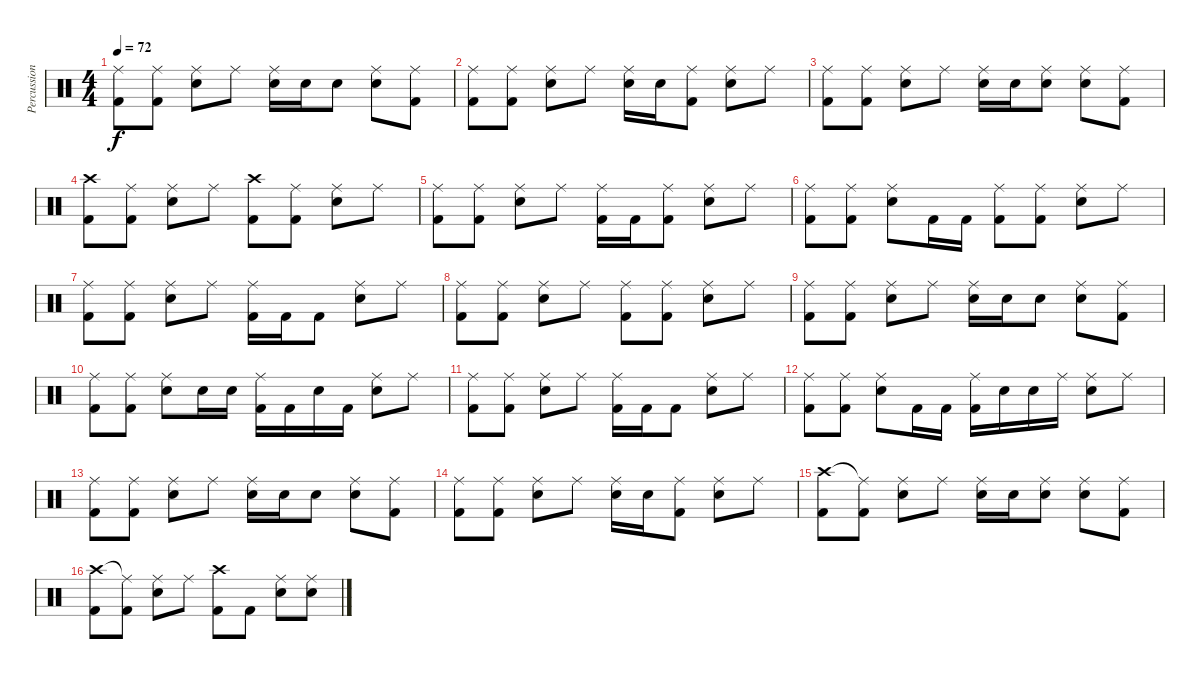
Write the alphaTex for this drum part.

\track ("Percussion" "Percussion") {instrument percussion}
\staff {score}
\articulation defaults
\ts (4 4)
\tempo 72
\clef neutral
\ks c
("Ride (middle)" "Kick (hit) 2").8{dy f} ("Ride (middle)" "Kick (hit) 2").8 ("Ride (middle)" "Electric Snare (hit)").8 "Ride (middle)".8 ("Ride (middle)" "Electric Snare (hit)").16 "Electric Snare (hit)".16 "Electric Snare (hit)".8 ("Ride (middle)" "Electric Snare (hit)").8 ("Ride (middle)" "Kick (hit) 2").8 |
("Ride (middle)" "Kick (hit) 2").8 ("Ride (middle)" "Kick (hit) 2").8 ("Ride (middle)" "Electric Snare (hit)").8 "Ride (middle)".8 ("Ride (middle)" "Electric Snare (hit)").16 "Electric Snare (hit)".16 ("Ride (middle)" "Kick (hit) 2").8 ("Ride (middle)" "Electric Snare (hit)").8 "Ride (middle)".8 |
("Ride (middle)" "Kick (hit) 2").8 ("Ride (middle)" "Kick (hit) 2").8 ("Ride (middle)" "Electric Snare (hit)").8 "Ride (middle)".8 ("Ride (middle)" "Electric Snare (hit)").16 "Electric Snare (hit)".16 ("Ride (middle)" "Electric Snare (hit)").8 ("Ride (middle)" "Electric Snare (hit)").8 ("Ride (middle)" "Kick (hit) 2").8 |
("Crash high (hit)" "Kick (hit) 2").8 ("Ride (middle)" "Kick (hit) 2").8 ("Ride (middle)" "Electric Snare (hit)").8 "Ride (middle)".8 ("Crash high (hit)" "Kick (hit) 2").8 ("Ride (middle)" "Kick (hit) 2").8 ("Ride (middle)" "Electric Snare (hit)").8 "Ride (middle)".8 |
("Ride (middle)" "Kick (hit) 2").8 ("Ride (middle)" "Kick (hit) 2").8 ("Ride (middle)" "Electric Snare (hit)").8 "Ride (middle)".8 ("Ride (middle)" "Kick (hit) 2").16 "Kick (hit) 2".16 ("Ride (middle)" "Kick (hit) 2").8 ("Ride (middle)" "Electric Snare (hit)").8 "Ride (middle)".8 |
("Ride (middle)" "Kick (hit) 2").8 ("Ride (middle)" "Kick (hit) 2").8 ("Ride (middle)" "Electric Snare (hit)").8 "Kick (hit) 2".16 "Kick (hit) 2".16 ("Ride (middle)" "Kick (hit) 2").8 ("Ride (middle)" "Kick (hit) 2").8 ("Ride (middle)" "Electric Snare (hit)").8 "Ride (middle)".8 |
("Ride (middle)" "Kick (hit) 2").8 ("Ride (middle)" "Kick (hit) 2").8 ("Ride (middle)" "Electric Snare (hit)").8 "Ride (middle)".8 ("Ride (middle)" "Kick (hit) 2").16 "Kick (hit) 2".16 "Kick (hit) 2".8 ("Ride (middle)" "Electric Snare (hit)").8 "Ride (middle)".8 |
("Ride (middle)" "Kick (hit) 2").8 ("Ride (middle)" "Kick (hit) 2").8 ("Ride (middle)" "Electric Snare (hit)").8 "Ride (middle)".8 ("Ride (middle)" "Kick (hit) 2").8 ("Ride (middle)" "Kick (hit) 2").8 ("Ride (middle)" "Electric Snare (hit)").8 "Ride (middle)".8 |
("Ride (middle)" "Kick (hit) 2").8 ("Ride (middle)" "Kick (hit) 2").8 ("Ride (middle)" "Electric Snare (hit)").8 "Ride (middle)".8 ("Ride (middle)" "Electric Snare (hit)").16 "Electric Snare (hit)".16 "Electric Snare (hit)".8 ("Ride (middle)" "Electric Snare (hit)").8 ("Ride (middle)" "Kick (hit) 2").8 |
("Ride (middle)" "Kick (hit) 2").8 ("Ride (middle)" "Kick (hit) 2").8 ("Ride (middle)" "Electric Snare (hit)").8 "Electric Snare (hit)".16 "Electric Snare (hit)".16 ("Ride (middle)" "Kick (hit) 2").16 "Kick (hit) 2".16 "Electric Snare (hit)".16 "Kick (hit) 2".16 ("Ride (middle)" "Electric Snare (hit)").8 "Ride (middle)".8 |
("Ride (middle)" "Kick (hit) 2").8 ("Ride (middle)" "Kick (hit) 2").8 ("Ride (middle)" "Electric Snare (hit)").8 "Ride (middle)".8 ("Ride (middle)" "Kick (hit) 2").16 "Kick (hit) 2".16 "Kick (hit) 2".8 ("Ride (middle)" "Electric Snare (hit)").8 "Ride (middle)".8 |
("Ride (middle)" "Kick (hit) 2").8 ("Ride (middle)" "Kick (hit) 2").8 ("Ride (middle)" "Electric Snare (hit)").8 "Kick (hit) 2".16 "Kick (hit) 2".16 ("Ride (middle)" "Kick (hit) 2").16 "Electric Snare (hit)".16 "Electric Snare (hit)".16 "Ride (middle)".16 ("Ride (middle)" "Electric Snare (hit)").8 "Ride (middle)".8 |
("Ride (middle)" "Kick (hit) 2").8 ("Ride (middle)" "Kick (hit) 2").8 ("Ride (middle)" "Electric Snare (hit)").8 "Ride (middle)".8 ("Ride (middle)" "Electric Snare (hit)").16 "Electric Snare (hit)".16 "Electric Snare (hit)".8 ("Ride (middle)" "Electric Snare (hit)").8 ("Ride (middle)" "Kick (hit) 2").8 |
("Ride (middle)" "Kick (hit) 2").8 ("Ride (middle)" "Kick (hit) 2").8 ("Ride (middle)" "Electric Snare (hit)").8 "Ride (middle)".8 ("Ride (middle)" "Electric Snare (hit)").16 "Electric Snare (hit)".16 ("Ride (middle)" "Kick (hit) 2").8 ("Ride (middle)" "Electric Snare (hit)").8 "Ride (middle)".8 |
("Crash high (hit)" "Kick (hit) 2").8 ("Ride (middle)"{t} "Kick (hit) 2").8 ("Ride (middle)" "Electric Snare (hit)").8 "Ride (middle)".8 ("Ride (middle)" "Electric Snare (hit)").16 "Electric Snare (hit)".16 ("Ride (middle)" "Electric Snare (hit)").8 ("Ride (middle)" "Electric Snare (hit)").8 ("Ride (middle)" "Kick (hit) 2").8 |
("Crash high (hit)" "Kick (hit) 2").8 ("Ride (middle)"{t} "Kick (hit) 2").8 ("Ride (middle)" "Electric Snare (hit)").8 "Ride (middle)".8 ("Crash high (hit)" "Kick (hit) 2").8 "Kick (hit) 2".8 ("Ride (middle)" "Electric Snare (hit)").8 ("Ride (middle)" "Electric Snare (hit)").8
